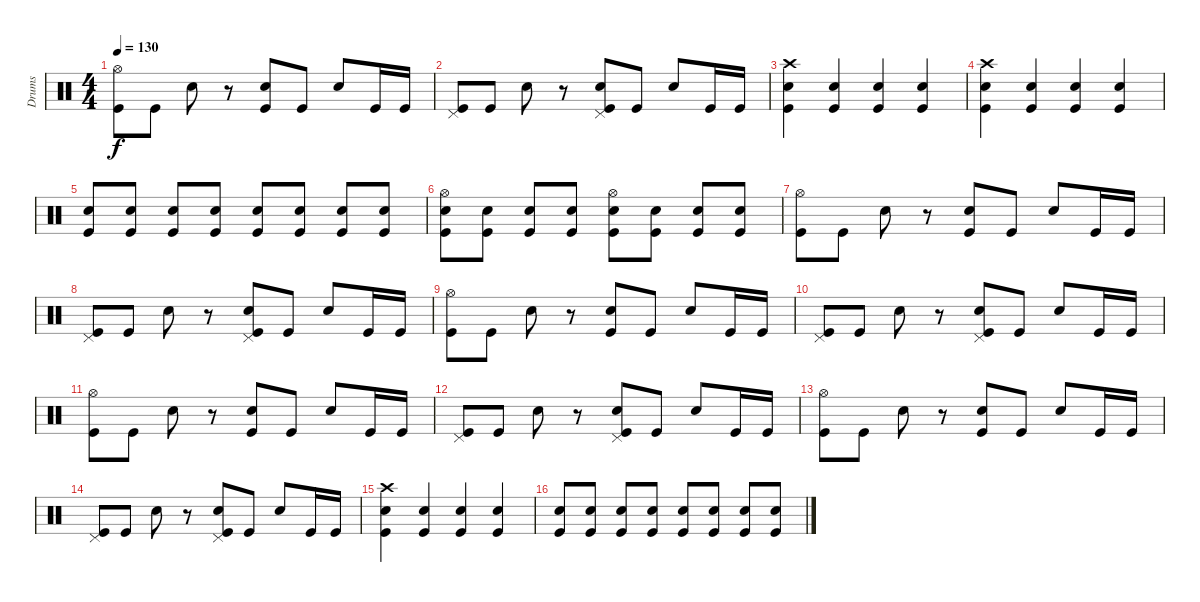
\track ("Drums" "Drums") {instrument percussion}
\staff {score}
\articulation defaults
\ts (4 4)
\tempo 130
\clef neutral
\ks c
("Hi-Hat (open)" "Kick (hit)").8{dy f} "Kick (hit)".8 "Snare (hit) 2".8 r.8 ("Snare (hit) 2" "Kick (hit)").8 "Kick (hit)".8 "Snare (hit) 2".8 "Kick (hit)".16 "Kick (hit)".16 |
("Pedal Hi-Hat (hit)" "Kick (hit)").8 "Kick (hit)".8 "Snare (hit) 2".8 r.8 ("Pedal Hi-Hat (hit)" "Snare (hit) 2" "Kick (hit)").8 "Kick (hit)".8 "Snare (hit) 2".8 "Kick (hit)".16 "Kick (hit)".16 |
("Crash high (hit)" "Snare (hit) 2" "Kick (hit)").4 ("Snare (hit) 2" "Kick (hit)").4 ("Snare (hit) 2" "Kick (hit)").4 ("Snare (hit) 2" "Kick (hit)").4 |
("Crash high (hit)" "Snare (hit) 2" "Kick (hit)").4 ("Snare (hit) 2" "Kick (hit)").4 ("Snare (hit) 2" "Kick (hit)").4 ("Snare (hit) 2" "Kick (hit)").4 |
("Snare (hit) 2" "Kick (hit)").8 ("Snare (hit) 2" "Kick (hit)").8 ("Snare (hit) 2" "Kick (hit)").8 ("Snare (hit) 2" "Kick (hit)").8 ("Snare (hit) 2" "Kick (hit)").8 ("Snare (hit) 2" "Kick (hit)").8 ("Snare (hit) 2" "Kick (hit)").8 ("Snare (hit) 2" "Kick (hit)").8 |
("Hi-Hat (open)" "Snare (hit) 2" "Kick (hit)").8 ("Snare (hit) 2" "Kick (hit)").8 ("Snare (hit) 2" "Kick (hit)").8 ("Snare (hit) 2" "Kick (hit)").8 ("Hi-Hat (open)" "Snare (hit) 2" "Kick (hit)").8 ("Snare (hit) 2" "Kick (hit)").8 ("Snare (hit) 2" "Kick (hit)").8 ("Snare (hit) 2" "Kick (hit)").8 |
("Hi-Hat (open)" "Kick (hit)").8 "Kick (hit)".8 "Snare (hit) 2".8 r.8 ("Snare (hit) 2" "Kick (hit)").8 "Kick (hit)".8 "Snare (hit) 2".8 "Kick (hit)".16 "Kick (hit)".16 |
("Pedal Hi-Hat (hit)" "Kick (hit)").8 "Kick (hit)".8 "Snare (hit) 2".8 r.8 ("Pedal Hi-Hat (hit)" "Snare (hit) 2" "Kick (hit)").8 "Kick (hit)".8 "Snare (hit) 2".8 "Kick (hit)".16 "Kick (hit)".16 |
("Hi-Hat (open)" "Kick (hit)").8 "Kick (hit)".8 "Snare (hit) 2".8 r.8 ("Snare (hit) 2" "Kick (hit)").8 "Kick (hit)".8 "Snare (hit) 2".8 "Kick (hit)".16 "Kick (hit)".16 |
("Pedal Hi-Hat (hit)" "Kick (hit)").8 "Kick (hit)".8 "Snare (hit) 2".8 r.8 ("Pedal Hi-Hat (hit)" "Snare (hit) 2" "Kick (hit)").8 "Kick (hit)".8 "Snare (hit) 2".8 "Kick (hit)".16 "Kick (hit)".16 |
("Hi-Hat (open)" "Kick (hit)").8 "Kick (hit)".8 "Snare (hit) 2".8 r.8 ("Snare (hit) 2" "Kick (hit)").8 "Kick (hit)".8 "Snare (hit) 2".8 "Kick (hit)".16 "Kick (hit)".16 |
("Pedal Hi-Hat (hit)" "Kick (hit)").8 "Kick (hit)".8 "Snare (hit) 2".8 r.8 ("Pedal Hi-Hat (hit)" "Snare (hit) 2" "Kick (hit)").8 "Kick (hit)".8 "Snare (hit) 2".8 "Kick (hit)".16 "Kick (hit)".16 |
("Hi-Hat (open)" "Kick (hit)").8 "Kick (hit)".8 "Snare (hit) 2".8 r.8 ("Snare (hit) 2" "Kick (hit)").8 "Kick (hit)".8 "Snare (hit) 2".8 "Kick (hit)".16 "Kick (hit)".16 |
("Pedal Hi-Hat (hit)" "Kick (hit)").8 "Kick (hit)".8 "Snare (hit) 2".8 r.8 ("Pedal Hi-Hat (hit)" "Snare (hit) 2" "Kick (hit)").8 "Kick (hit)".8 "Snare (hit) 2".8 "Kick (hit)".16 "Kick (hit)".16 |
("Crash high (hit)" "Snare (hit) 2" "Kick (hit)").4 ("Snare (hit) 2" "Kick (hit)").4 ("Snare (hit) 2" "Kick (hit)").4 ("Snare (hit) 2" "Kick (hit)").4 |
("Snare (hit) 2" "Kick (hit)").8 ("Snare (hit) 2" "Kick (hit)").8 ("Snare (hit) 2" "Kick (hit)").8 ("Snare (hit) 2" "Kick (hit)").8 ("Snare (hit) 2" "Kick (hit)").8 ("Snare (hit) 2" "Kick (hit)").8 ("Snare (hit) 2" "Kick (hit)").8 ("Snare (hit) 2" "Kick (hit)").8
